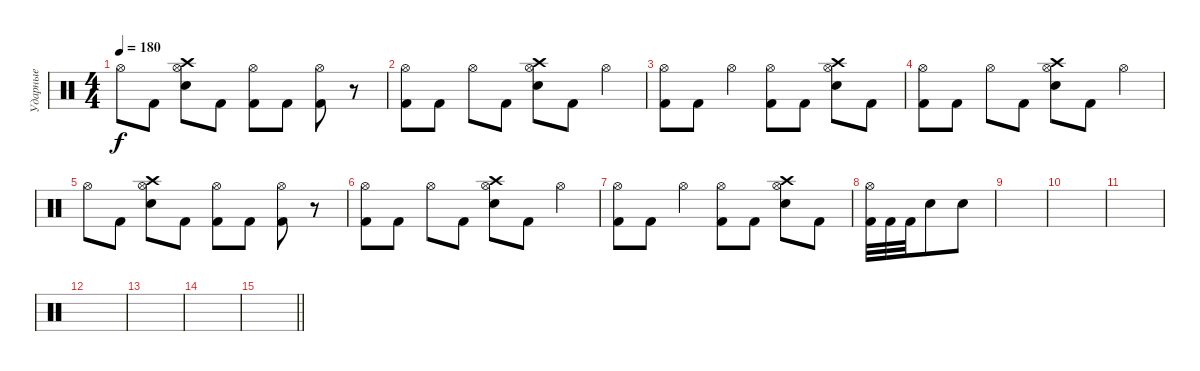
\track ("Ударные" "Ударные") {instrument percussion}
\staff {score}
\articulation defaults
\ts (4 4)
\tempo 180
\clef neutral
\ks c "Hi-Hat (open)".8{dy f} "Kick (hit) 2".8
("Electric Snare (hit)" "Crash high (hit)" "Hi-Hat (open)").8 "Kick (hit) 2".8 ("Kick (hit) 2" "Hi-Hat (open)").8 "Kick (hit) 2".8 ("Kick (hit) 2" "Hi-Hat (open)").8 r.8 |
("Kick (hit) 2" "Hi-Hat (open)").8 "Kick (hit) 2".8 "Hi-Hat (open)".8 "Kick (hit) 2".8 ("Electric Snare (hit)" "Crash high (hit)" "Hi-Hat (open)").8 "Kick (hit) 2".8 "Hi-Hat (open)".4 |
("Kick (hit) 2" "Hi-Hat (open)").8 "Kick (hit) 2".8 "Hi-Hat (open)".4 ("Kick (hit) 2" "Hi-Hat (open)").8 "Kick (hit) 2".8 ("Electric Snare (hit)" "Crash high (hit)" "Hi-Hat (open)").8 "Kick (hit) 2".8 |
("Kick (hit) 2" "Hi-Hat (open)").8 "Kick (hit) 2".8 "Hi-Hat (open)".8 "Kick (hit) 2".8 ("Electric Snare (hit)" "Crash high (hit)" "Hi-Hat (open)").8 "Kick (hit) 2".8 "Hi-Hat (open)".4 |
"Hi-Hat (open)".8 "Kick (hit) 2".8 ("Electric Snare (hit)" "Crash high (hit)" "Hi-Hat (open)").8 "Kick (hit) 2".8 ("Kick (hit) 2" "Hi-Hat (open)").8 "Kick (hit) 2".8 ("Kick (hit) 2" "Hi-Hat (open)").8 r.8 |
("Kick (hit) 2" "Hi-Hat (open)").8 "Kick (hit) 2".8 "Hi-Hat (open)".8 "Kick (hit) 2".8 ("Electric Snare (hit)" "Crash high (hit)" "Hi-Hat (open)").8 "Kick (hit) 2".8 "Hi-Hat (open)".4 |
("Kick (hit) 2" "Hi-Hat (open)").8 "Kick (hit) 2".8 "Hi-Hat (open)".4 ("Kick (hit) 2" "Hi-Hat (open)").8 "Kick (hit) 2".8 ("Electric Snare (hit)" "Crash high (hit)" "Hi-Hat (open)").8 "Kick (hit) 2".8 |
("Hi-Hat (open)" "Kick (hit) 2").32 "Kick (hit) 2".32 "Kick (hit) 2".32 "Electric Snare (hit)".8 "Electric Snare (hit)".8 |
|
|
|
|
|
|
\barLineRight lightlight
